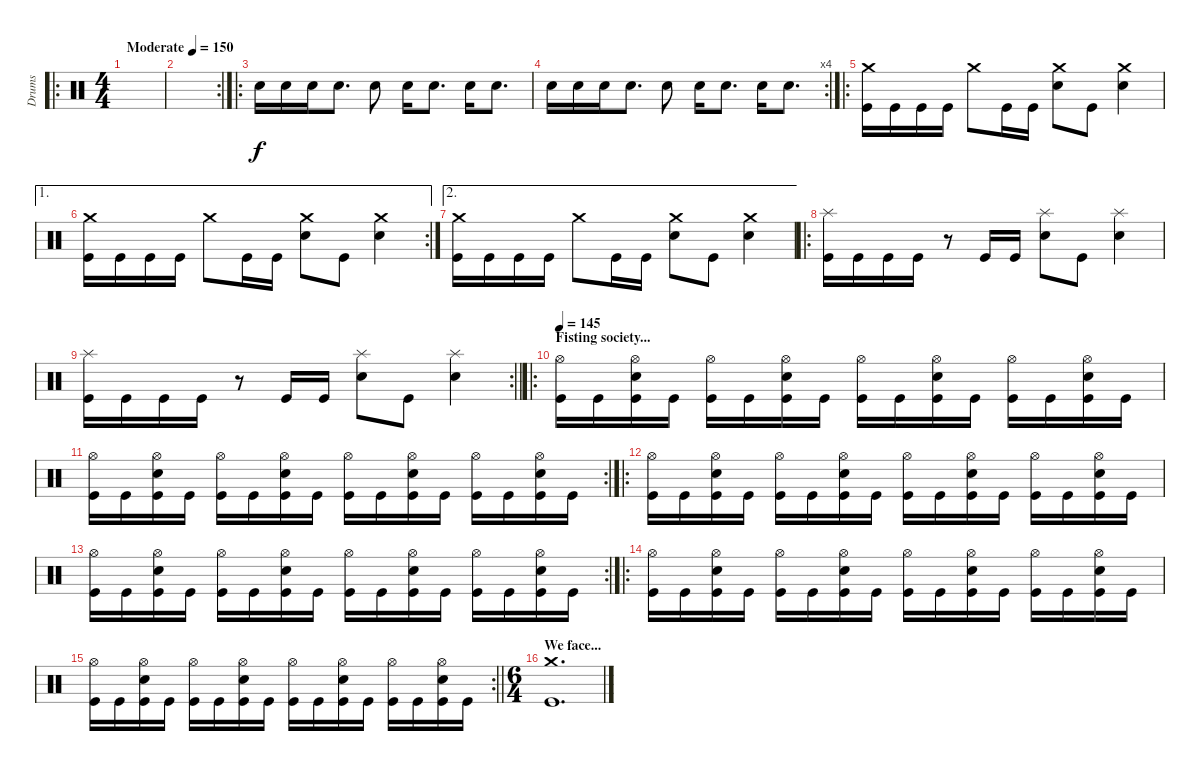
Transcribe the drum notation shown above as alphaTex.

\track ("Drums" "Drums") {instrument percussion}
\staff {score}
\articulation defaults
\ro
\ts (4 4)
\section ("" "")
\tempo (150 "Moderate")
\clef neutral
\ks c
|
\rc 2
|
\ro "Electric Snare (hit)".16 "Electric Snare (hit)".16 "Electric Snare (hit)".16 "Electric Snare (hit)".8{d} "Electric Snare (hit)".8 "Electric Snare (hit)".16 "Electric Snare (hit)".8{d} "Electric Snare (hit)".16 "Electric Snare (hit)".8{d}
|
\rc 4 "Electric Snare (hit)".16 "Electric Snare (hit)".16 "Electric Snare (hit)".16 "Electric Snare (hit)".8{d} "Electric Snare (hit)".8 "Electric Snare (hit)".16 "Electric Snare (hit)".8{d} "Electric Snare (hit)".16 "Electric Snare (hit)".8{d}
|
\ro
("Crash medium (hit)" "Kick (hit)").16 "Kick (hit)".16 "Kick (hit)".16 "Kick (hit)".16 "Crash medium (hit)".8 "Kick (hit)".16 "Kick (hit)".16 ("Crash medium (hit)" "Electric Snare (hit)").8 "Kick (hit)".8 ("Crash medium (hit)" "Electric Snare (hit)").4 |
\ae 1
\rc 2
("Crash medium (hit)" "Kick (hit)").16 "Kick (hit)".16 "Kick (hit)".16 "Kick (hit)".16 "Crash medium (hit)".8 "Kick (hit)".16 "Kick (hit)".16 ("Crash medium (hit)" "Electric Snare (hit)").8 "Kick (hit)".8 ("Crash medium (hit)" "Electric Snare (hit)").4 |
\ae 2
("Crash medium (hit)" "Kick (hit)").16 "Kick (hit)".16 "Kick (hit)".16 "Kick (hit)".16 "Crash medium (hit)".8 "Kick (hit)".16 "Kick (hit)".16 ("Crash medium (hit)" "Electric Snare (hit)").8 "Kick (hit)".8 ("Crash medium (hit)" "Electric Snare (hit)").4 |
\ro
("Splash (hit)" "Kick (hit)").16 "Kick (hit)".16 "Kick (hit)".16 "Kick (hit)".16 r.8 "Kick (hit)".16 "Kick (hit)".16 ("Splash (hit)" "Electric Snare (hit)").8 "Kick (hit)".8 ("Splash (hit)" "Electric Snare (hit)").4 |
\rc 2
\barLineRight lightlight
("Splash (hit)" "Kick (hit)").16 "Kick (hit)".16 "Kick (hit)".16 "Kick (hit)".16 r.8 "Kick (hit)".16 "Kick (hit)".16 ("Splash (hit)" "Electric Snare (hit)").8 "Kick (hit)".8 ("Splash (hit)" "Electric Snare (hit)").4 |
\ro
\section ("" "Fisting society...")
\tempo 145
("Hi-Hat (open)" "Kick (hit)").16 "Kick (hit)".16 ("Hi-Hat (open)" "Electric Snare (hit)" "Kick (hit)").16 "Kick (hit)".16 ("Hi-Hat (open)" "Kick (hit)").16 "Kick (hit)".16 ("Hi-Hat (open)" "Electric Snare (hit)" "Kick (hit)").16 "Kick (hit)".16 ("Hi-Hat (open)" "Kick (hit)").16 "Kick (hit)".16 ("Hi-Hat (open)" "Electric Snare (hit)" "Kick (hit)").16 "Kick (hit)".16 ("Hi-Hat (open)" "Kick (hit)").16 "Kick (hit)".16 ("Hi-Hat (open)" "Electric Snare (hit)" "Kick (hit)").16 "Kick (hit)".16 |
\rc 2
("Hi-Hat (open)" "Kick (hit)").16 "Kick (hit)".16 ("Hi-Hat (open)" "Electric Snare (hit)" "Kick (hit)").16 "Kick (hit)".16 ("Hi-Hat (open)" "Kick (hit)").16 "Kick (hit)".16 ("Hi-Hat (open)" "Electric Snare (hit)" "Kick (hit)").16 "Kick (hit)".16 ("Hi-Hat (open)" "Kick (hit)").16 "Kick (hit)".16 ("Hi-Hat (open)" "Electric Snare (hit)" "Kick (hit)").16 "Kick (hit)".16 ("Hi-Hat (open)" "Kick (hit)").16 "Kick (hit)".16 ("Hi-Hat (open)" "Electric Snare (hit)" "Kick (hit)").16 "Kick (hit)".16 |
\ro
("Hi-Hat (open)" "Kick (hit)").16 "Kick (hit)".16 ("Hi-Hat (open)" "Electric Snare (hit)" "Kick (hit)").16 "Kick (hit)".16 ("Hi-Hat (open)" "Kick (hit)").16 "Kick (hit)".16 ("Hi-Hat (open)" "Electric Snare (hit)" "Kick (hit)").16 "Kick (hit)".16 ("Hi-Hat (open)" "Kick (hit)").16 "Kick (hit)".16 ("Hi-Hat (open)" "Electric Snare (hit)" "Kick (hit)").16 "Kick (hit)".16 ("Hi-Hat (open)" "Kick (hit)").16 "Kick (hit)".16 ("Hi-Hat (open)" "Electric Snare (hit)" "Kick (hit)").16 "Kick (hit)".16 |
\rc 2
("Hi-Hat (open)" "Kick (hit)").16 "Kick (hit)".16 ("Hi-Hat (open)" "Electric Snare (hit)" "Kick (hit)").16 "Kick (hit)".16 ("Hi-Hat (open)" "Kick (hit)").16 "Kick (hit)".16 ("Hi-Hat (open)" "Electric Snare (hit)" "Kick (hit)").16 "Kick (hit)".16 ("Hi-Hat (open)" "Kick (hit)").16 "Kick (hit)".16 ("Hi-Hat (open)" "Electric Snare (hit)" "Kick (hit)").16 "Kick (hit)".16 ("Hi-Hat (open)" "Kick (hit)").16 "Kick (hit)".16 ("Hi-Hat (open)" "Electric Snare (hit)" "Kick (hit)").16 "Kick (hit)".16 |
\ro
("Hi-Hat (open)" "Kick (hit)").16 "Kick (hit)".16 ("Hi-Hat (open)" "Electric Snare (hit)" "Kick (hit)").16 "Kick (hit)".16 ("Hi-Hat (open)" "Kick (hit)").16 "Kick (hit)".16 ("Hi-Hat (open)" "Electric Snare (hit)" "Kick (hit)").16 "Kick (hit)".16 ("Hi-Hat (open)" "Kick (hit)").16 "Kick (hit)".16 ("Hi-Hat (open)" "Electric Snare (hit)" "Kick (hit)").16 "Kick (hit)".16 ("Hi-Hat (open)" "Kick (hit)").16 "Kick (hit)".16 ("Hi-Hat (open)" "Electric Snare (hit)" "Kick (hit)").16 "Kick (hit)".16 |
\rc 2
\barLineRight lightlight
("Hi-Hat (open)" "Kick (hit)").16 "Kick (hit)".16 ("Hi-Hat (open)" "Electric Snare (hit)" "Kick (hit)").16 "Kick (hit)".16 ("Hi-Hat (open)" "Kick (hit)").16 "Kick (hit)".16 ("Hi-Hat (open)" "Electric Snare (hit)" "Kick (hit)").16 "Kick (hit)".16 ("Hi-Hat (open)" "Kick (hit)").16 "Kick (hit)".16 ("Hi-Hat (open)" "Electric Snare (hit)" "Kick (hit)").16 "Kick (hit)".16 ("Hi-Hat (open)" "Kick (hit)").16 "Kick (hit)".16 ("Hi-Hat (open)" "Electric Snare (hit)" "Kick (hit)").16 "Kick (hit)".16 |
\ts (6 4)
\section ("" "We face...")
("Crash medium (hit)" "Kick (hit)").1{d}
